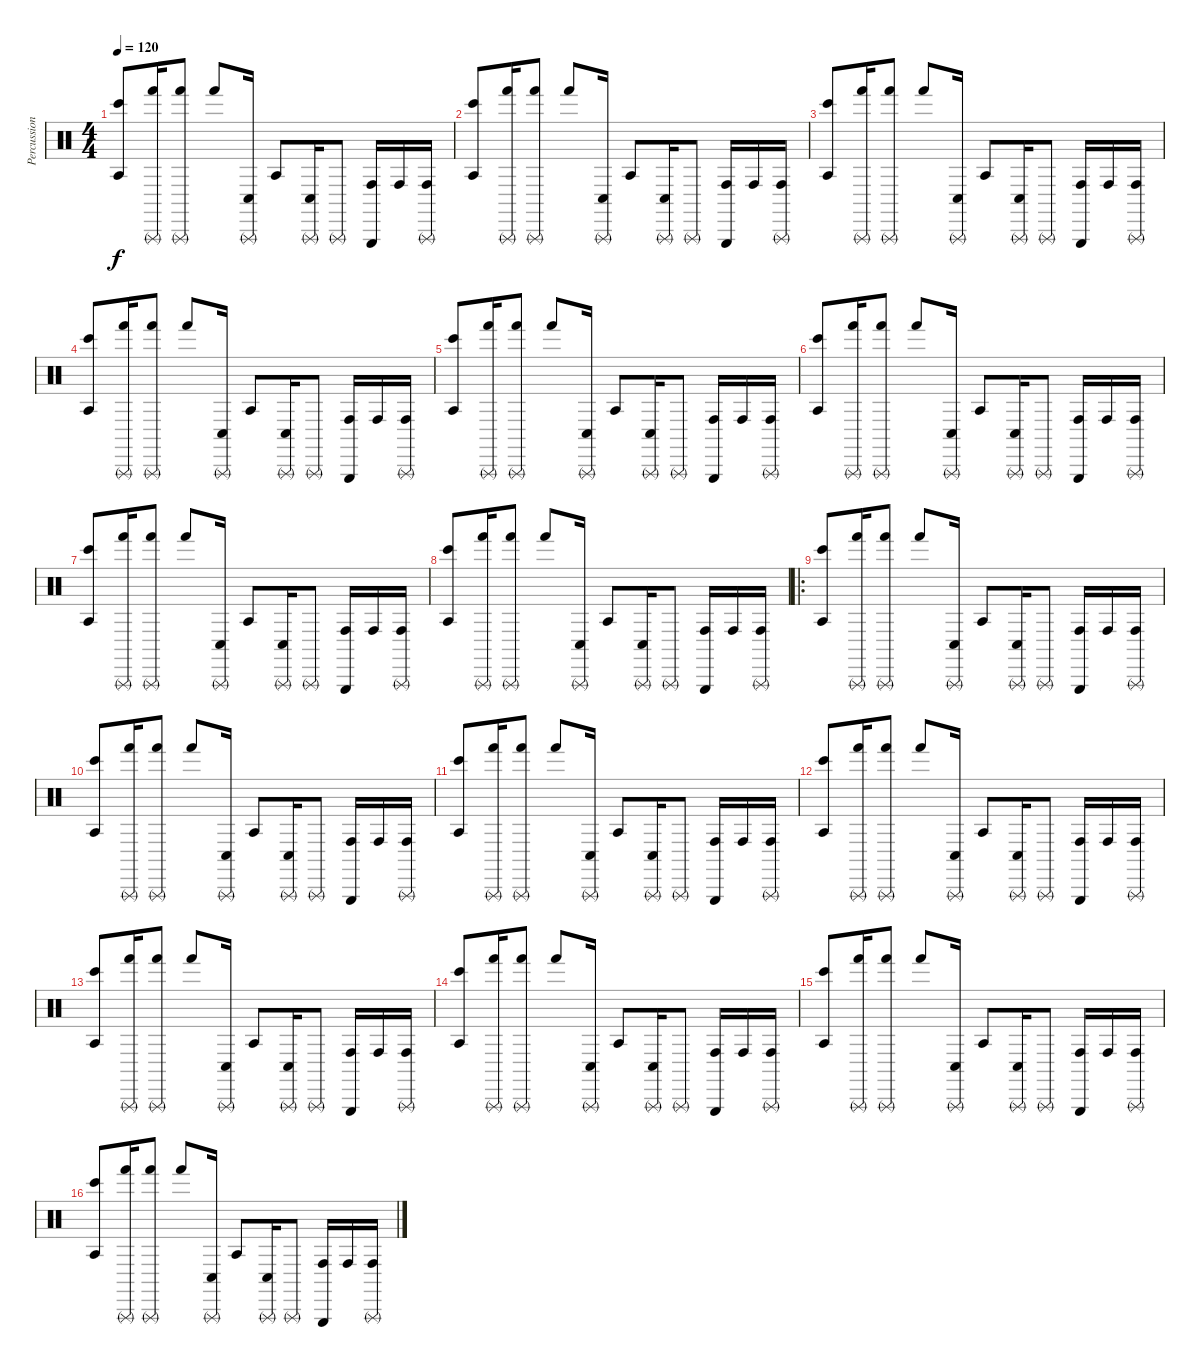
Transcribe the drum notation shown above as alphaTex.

\track ("Percussion" "Percussion") {instrument percussion}
\staff {score}
\articulation defaults
\ts (4 4)
\tempo 120
\clef neutral
\ks c
("Agogo tow (hit)" "Bongo High (hit)").8{dy f} ("Triangle (rnute)" "Hand (hit)").16 ("Triangle (rnute)" "Hand (hit)").8 "Hand (hit)".8 ("Triangle (rnute)" "Conga low (hit)").16 "Agogo tow (hit)".8 ("Triangle (rnute)" "Conga low (hit)").16 "Triangle (rnute)".8 ("Triangle (hit)" "Conga high (hit)").16 "Conga high (hit)".16 ("Triangle (rnute)" "Conga high (hit)").16 |
("Agogo tow (hit)" "Bongo High (hit)").8 ("Triangle (rnute)" "Hand (hit)").16 ("Triangle (rnute)" "Hand (hit)").8 "Hand (hit)".8 ("Triangle (rnute)" "Conga low (hit)").16 "Agogo tow (hit)".8 ("Triangle (rnute)" "Conga low (hit)").16 "Triangle (rnute)".8 ("Triangle (hit)" "Conga high (hit)").16 "Conga high (hit)".16 ("Triangle (rnute)" "Conga high (hit)").16 |
("Agogo tow (hit)" "Bongo High (hit)").8 ("Triangle (rnute)" "Hand (hit)").16 ("Triangle (rnute)" "Hand (hit)").8 "Hand (hit)".8 ("Triangle (rnute)" "Conga low (hit)").16 "Agogo tow (hit)".8 ("Triangle (rnute)" "Conga low (hit)").16 "Triangle (rnute)".8 ("Triangle (hit)" "Conga high (hit)").16 "Conga high (hit)".16 ("Triangle (rnute)" "Conga high (hit)").16 |
("Agogo tow (hit)" "Bongo High (hit)").8 ("Triangle (rnute)" "Hand (hit)").16 ("Triangle (rnute)" "Hand (hit)").8 "Hand (hit)".8 ("Triangle (rnute)" "Conga low (hit)").16 "Agogo tow (hit)".8 ("Triangle (rnute)" "Conga low (hit)").16 "Triangle (rnute)".8 ("Triangle (hit)" "Conga high (hit)").16 "Conga high (hit)".16 ("Triangle (rnute)" "Conga high (hit)").16 |
("Agogo tow (hit)" "Bongo High (hit)").8 ("Triangle (rnute)" "Hand (hit)").16 ("Triangle (rnute)" "Hand (hit)").8 "Hand (hit)".8 ("Triangle (rnute)" "Conga low (hit)").16 "Agogo tow (hit)".8 ("Triangle (rnute)" "Conga low (hit)").16 "Triangle (rnute)".8 ("Triangle (hit)" "Conga high (hit)").16 "Conga high (hit)".16 ("Triangle (rnute)" "Conga high (hit)").16 |
("Agogo tow (hit)" "Bongo High (hit)").8 ("Triangle (rnute)" "Hand (hit)").16 ("Triangle (rnute)" "Hand (hit)").8 "Hand (hit)".8 ("Triangle (rnute)" "Conga low (hit)").16 "Agogo tow (hit)".8 ("Triangle (rnute)" "Conga low (hit)").16 "Triangle (rnute)".8 ("Triangle (hit)" "Conga high (hit)").16 "Conga high (hit)".16 ("Triangle (rnute)" "Conga high (hit)").16 |
("Agogo tow (hit)" "Bongo High (hit)").8 ("Triangle (rnute)" "Hand (hit)").16 ("Triangle (rnute)" "Hand (hit)").8 "Hand (hit)".8 ("Triangle (rnute)" "Conga low (hit)").16 "Agogo tow (hit)".8 ("Triangle (rnute)" "Conga low (hit)").16 "Triangle (rnute)".8 ("Triangle (hit)" "Conga high (hit)").16 "Conga high (hit)".16 ("Triangle (rnute)" "Conga high (hit)").16 |
("Agogo tow (hit)" "Bongo High (hit)").8 ("Triangle (rnute)" "Hand (hit)").16 ("Triangle (rnute)" "Hand (hit)").8 "Hand (hit)".8 ("Triangle (rnute)" "Conga low (hit)").16 "Agogo tow (hit)".8 ("Triangle (rnute)" "Conga low (hit)").16 "Triangle (rnute)".8 ("Triangle (hit)" "Conga high (hit)").16 "Conga high (hit)".16 ("Triangle (rnute)" "Conga high (hit)").16 |
\ro
("Agogo tow (hit)" "Bongo High (hit)").8 ("Triangle (rnute)" "Hand (hit)").16 ("Triangle (rnute)" "Hand (hit)").8 "Hand (hit)".8 ("Triangle (rnute)" "Conga low (hit)").16 "Agogo tow (hit)".8 ("Triangle (rnute)" "Conga low (hit)").16 "Triangle (rnute)".8 ("Triangle (hit)" "Conga high (hit)").16 "Conga high (hit)".16 ("Triangle (rnute)" "Conga high (hit)").16 |
("Agogo tow (hit)" "Bongo High (hit)").8 ("Triangle (rnute)" "Hand (hit)").16 ("Triangle (rnute)" "Hand (hit)").8 "Hand (hit)".8 ("Triangle (rnute)" "Conga low (hit)").16 "Agogo tow (hit)".8 ("Triangle (rnute)" "Conga low (hit)").16 "Triangle (rnute)".8 ("Triangle (hit)" "Conga high (hit)").16 "Conga high (hit)".16 ("Triangle (rnute)" "Conga high (hit)").16 |
("Agogo tow (hit)" "Bongo High (hit)").8 ("Triangle (rnute)" "Hand (hit)").16 ("Triangle (rnute)" "Hand (hit)").8 "Hand (hit)".8 ("Triangle (rnute)" "Conga low (hit)").16 "Agogo tow (hit)".8 ("Triangle (rnute)" "Conga low (hit)").16 "Triangle (rnute)".8 ("Triangle (hit)" "Conga high (hit)").16 "Conga high (hit)".16 ("Triangle (rnute)" "Conga high (hit)").16 |
("Agogo tow (hit)" "Bongo High (hit)").8 ("Triangle (rnute)" "Hand (hit)").16 ("Triangle (rnute)" "Hand (hit)").8 "Hand (hit)".8 ("Triangle (rnute)" "Conga low (hit)").16 "Agogo tow (hit)".8 ("Triangle (rnute)" "Conga low (hit)").16 "Triangle (rnute)".8 ("Triangle (hit)" "Conga high (hit)").16 "Conga high (hit)".16 ("Triangle (rnute)" "Conga high (hit)").16 |
("Agogo tow (hit)" "Bongo High (hit)").8 ("Triangle (rnute)" "Hand (hit)").16 ("Triangle (rnute)" "Hand (hit)").8 "Hand (hit)".8 ("Triangle (rnute)" "Conga low (hit)").16 "Agogo tow (hit)".8 ("Triangle (rnute)" "Conga low (hit)").16 "Triangle (rnute)".8 ("Triangle (hit)" "Conga high (hit)").16 "Conga high (hit)".16 ("Triangle (rnute)" "Conga high (hit)").16 |
("Agogo tow (hit)" "Bongo High (hit)").8 ("Triangle (rnute)" "Hand (hit)").16 ("Triangle (rnute)" "Hand (hit)").8 "Hand (hit)".8 ("Triangle (rnute)" "Conga low (hit)").16 "Agogo tow (hit)".8 ("Triangle (rnute)" "Conga low (hit)").16 "Triangle (rnute)".8 ("Triangle (hit)" "Conga high (hit)").16 "Conga high (hit)".16 ("Triangle (rnute)" "Conga high (hit)").16 |
("Agogo tow (hit)" "Bongo High (hit)").8 ("Triangle (rnute)" "Hand (hit)").16 ("Triangle (rnute)" "Hand (hit)").8 "Hand (hit)".8 ("Triangle (rnute)" "Conga low (hit)").16 "Agogo tow (hit)".8 ("Triangle (rnute)" "Conga low (hit)").16 "Triangle (rnute)".8 ("Triangle (hit)" "Conga high (hit)").16 "Conga high (hit)".16 ("Triangle (rnute)" "Conga high (hit)").16 |
("Agogo tow (hit)" "Bongo High (hit)").8 ("Triangle (rnute)" "Hand (hit)").16 ("Triangle (rnute)" "Hand (hit)").8 "Hand (hit)".8 ("Triangle (rnute)" "Conga low (hit)").16 "Agogo tow (hit)".8 ("Triangle (rnute)" "Conga low (hit)").16 "Triangle (rnute)".8 ("Triangle (hit)" "Conga high (hit)").16 "Conga high (hit)".16 ("Triangle (rnute)" "Conga high (hit)").16
